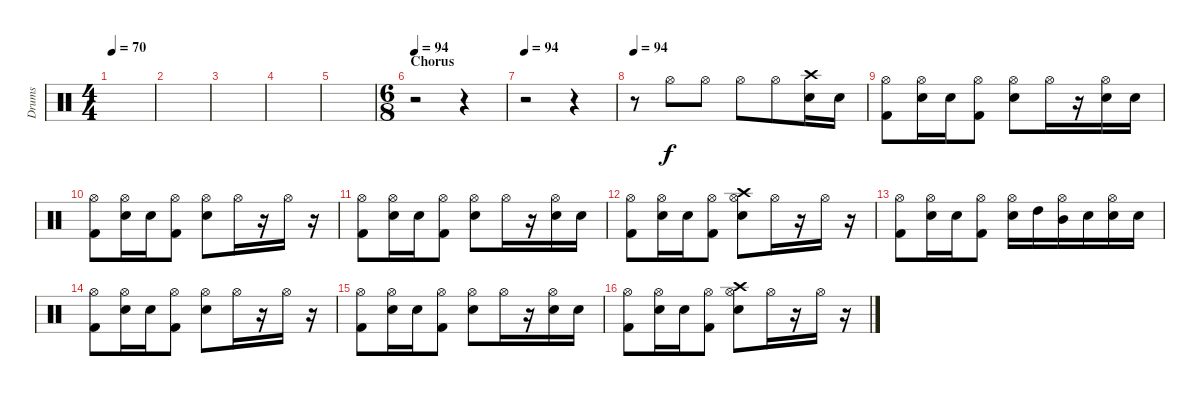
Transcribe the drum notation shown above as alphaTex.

\track ("Drums" "Drums") {instrument percussion}
\staff {score}
\articulation defaults
\ts (4 4)
\tempo 70
\clef neutral
\ks c
|
|
|
|
|
\ts (6 8)
\section ("" "Chorus")
\tempo 94
r.2 r.4 |
\tempo 94
r.2 r.4 |
\tempo 94
r.8{volume 11} "Hi-Hat (open)".8 "Hi-Hat (open)".8 "Hi-Hat (open)".8 "Hi-Hat (open)".8 ("Snare (hit) 2" "Crash high (hit)").16 "Snare (hit) 2".16 |
("Kick (hit) 2" "Hi-Hat (open)").8 ("Snare (hit) 2" "Hi-Hat (open)").16 "Snare (hit) 2".16 ("Kick (hit) 2" "Hi-Hat (open)").8 ("Electric Snare (hit)" "Hi-Hat (open)").8 "Hi-Hat (open)".16 r.16 ("Snare (hit) 2" "Hi-Hat (open)").16 "Snare (hit) 2".16 |
("Kick (hit) 2" "Hi-Hat (open)").8 ("Snare (hit) 2" "Hi-Hat (open)").16 "Snare (hit) 2".16 ("Kick (hit) 2" "Hi-Hat (open)").8 ("Electric Snare (hit)" "Hi-Hat (open)").8 "Hi-Hat (open)".16 r.16 "Hi-Hat (open)".16 r.16 |
("Kick (hit) 2" "Hi-Hat (open)").8 ("Snare (hit) 2" "Hi-Hat (open)").16 "Snare (hit) 2".16 ("Kick (hit) 2" "Hi-Hat (open)").8 ("Electric Snare (hit)" "Hi-Hat (open)").8 "Hi-Hat (open)".16 r.16 ("Snare (hit) 2" "Hi-Hat (open)").16 "Snare (hit) 2".16 |
("Kick (hit) 2" "Hi-Hat (open)").8 ("Snare (hit) 2" "Hi-Hat (open)").16 "Snare (hit) 2".16 ("Kick (hit) 2" "Hi-Hat (open)").8 ("Electric Snare (hit)" "Crash high (hit)" "Hi-Hat (open)").8 "Hi-Hat (open)".16 r.16 "Hi-Hat (open)".16 r.16 |
("Kick (hit) 2" "Hi-Hat (open)").8 ("Snare (hit) 2" "Hi-Hat (open)").16 "Snare (hit) 2".16 ("Kick (hit) 2" "Hi-Hat (open)").8 ("Electric Snare (hit)" "Hi-Hat (open)").16 "High Tom (hit)".16 ("Mid Tom (hit)" "Hi-Hat (open)").16 "Electric Snare (hit)".16 ("Snare (hit) 2" "Hi-Hat (open)").16 "Snare (hit) 2".16 |
("Kick (hit) 2" "Hi-Hat (open)").8 ("Snare (hit) 2" "Hi-Hat (open)").16 "Snare (hit) 2".16 ("Kick (hit) 2" "Hi-Hat (open)").8 ("Electric Snare (hit)" "Hi-Hat (open)").8 "Hi-Hat (open)".16 r.16 "Hi-Hat (open)".16 r.16 |
("Kick (hit) 2" "Hi-Hat (open)").8 ("Snare (hit) 2" "Hi-Hat (open)").16 "Snare (hit) 2".16 ("Kick (hit) 2" "Hi-Hat (open)").8 ("Electric Snare (hit)" "Hi-Hat (open)").8 "Hi-Hat (open)".16 r.16 ("Snare (hit) 2" "Hi-Hat (open)").16 "Snare (hit) 2".16 |
("Kick (hit) 2" "Hi-Hat (open)").8 ("Snare (hit) 2" "Hi-Hat (open)").16 "Snare (hit) 2".16 ("Kick (hit) 2" "Hi-Hat (open)").8 ("Electric Snare (hit)" "Crash high (hit)" "Hi-Hat (open)").8 "Hi-Hat (open)".16 r.16 "Hi-Hat (open)".16 r.16
